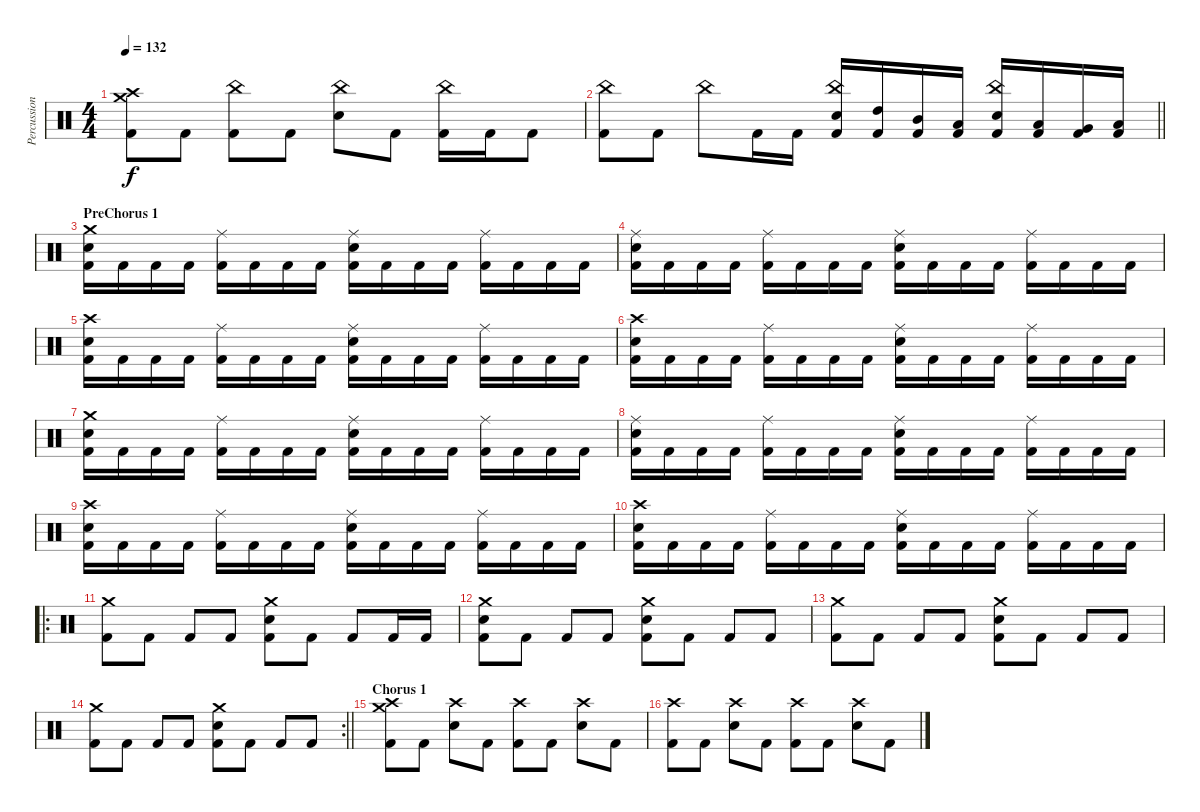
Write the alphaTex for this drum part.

\track ("Percussion" "Percussion") {instrument percussion}
\staff {score}
\articulation defaults
\ts (4 4)
\tempo 132
\clef neutral
\ks c
("Crash medium (hit)" "Crash high (hit)" "Kick (hit) 2").8{dy f} "Kick (hit) 2".8 ("China (hit)" "Kick (hit) 2").8 "Kick (hit) 2".8 ("China (hit)" "Electric Snare (hit)").8 "Kick (hit) 2".8 ("China (hit)" "Kick (hit) 2").16 "Kick (hit) 2".16 "Kick (hit) 2".8 |
\barLineRight lightlight
("China (hit)" "Kick (hit) 2").8 "Kick (hit) 2".8 "China (hit)".8 "Kick (hit) 2".16 "Kick (hit) 2".16 ("China (hit)" "Electric Snare (hit)" "Kick (hit) 2").16 ("High Tom (hit)" "Kick (hit) 2").16 ("Mid Tom (hit)" "Kick (hit) 2").16 ("Low Tom (hit)" "Kick (hit) 2").16 ("China (hit)" "Electric Snare (hit)" "Kick (hit) 2").16 ("Low Tom (hit)" "Kick (hit) 2").16 ("Very Low Tom (hit)" "Kick (hit) 2").16 ("Low Floor Tom (hit)" "Kick (hit) 2").16 |
\section ("" "PreChorus 1")
("Crash medium (hit)" "Electric Snare (hit)" "Kick (hit) 2").16 "Kick (hit) 2".16 "Kick (hit) 2".16 "Kick (hit) 2".16 ("Ride (middle)" "Kick (hit) 2").16 "Kick (hit) 2".16 "Kick (hit) 2".16 "Kick (hit) 2".16 ("Ride (middle)" "Electric Snare (hit)" "Kick (hit) 2").16 "Kick (hit) 2".16 "Kick (hit) 2".16 "Kick (hit) 2".16 ("Ride (middle)" "Kick (hit) 2").16 "Kick (hit) 2".16 "Kick (hit) 2".16 "Kick (hit) 2".16 |
("Ride (middle)" "Electric Snare (hit)" "Kick (hit) 2").16 "Kick (hit) 2".16 "Kick (hit) 2".16 "Kick (hit) 2".16 ("Ride (middle)" "Kick (hit) 2").16 "Kick (hit) 2".16 "Kick (hit) 2".16 "Kick (hit) 2".16 ("Ride (middle)" "Electric Snare (hit)" "Kick (hit) 2").16 "Kick (hit) 2".16 "Kick (hit) 2".16 "Kick (hit) 2".16 ("Ride (middle)" "Kick (hit) 2").16 "Kick (hit) 2".16 "Kick (hit) 2".16 "Kick (hit) 2".16 |
("Crash high (hit)" "Electric Snare (hit)" "Kick (hit) 2").16 "Kick (hit) 2".16 "Kick (hit) 2".16 "Kick (hit) 2".16 ("Ride (middle)" "Kick (hit) 2").16 "Kick (hit) 2".16 "Kick (hit) 2".16 "Kick (hit) 2".16 ("Ride (middle)" "Electric Snare (hit)" "Kick (hit) 2").16 "Kick (hit) 2".16 "Kick (hit) 2".16 "Kick (hit) 2".16 ("Ride (middle)" "Kick (hit) 2").16 "Kick (hit) 2".16 "Kick (hit) 2".16 "Kick (hit) 2".16 |
("Crash high (hit)" "Electric Snare (hit)" "Kick (hit) 2").16 "Kick (hit) 2".16 "Kick (hit) 2".16 "Kick (hit) 2".16 ("Ride (middle)" "Kick (hit) 2").16 "Kick (hit) 2".16 "Kick (hit) 2".16 "Kick (hit) 2".16 ("Ride (middle)" "Electric Snare (hit)" "Kick (hit) 2").16 "Kick (hit) 2".16 "Kick (hit) 2".16 "Kick (hit) 2".16 ("Ride (middle)" "Kick (hit) 2").16 "Kick (hit) 2".16 "Kick (hit) 2".16 "Kick (hit) 2".16 |
("Crash medium (hit)" "Electric Snare (hit)" "Kick (hit) 2").16 "Kick (hit) 2".16 "Kick (hit) 2".16 "Kick (hit) 2".16 ("Ride (middle)" "Kick (hit) 2").16 "Kick (hit) 2".16 "Kick (hit) 2".16 "Kick (hit) 2".16 ("Ride (middle)" "Electric Snare (hit)" "Kick (hit) 2").16 "Kick (hit) 2".16 "Kick (hit) 2".16 "Kick (hit) 2".16 ("Ride (middle)" "Kick (hit) 2").16 "Kick (hit) 2".16 "Kick (hit) 2".16 "Kick (hit) 2".16 |
("Ride (middle)" "Electric Snare (hit)" "Kick (hit) 2").16 "Kick (hit) 2".16 "Kick (hit) 2".16 "Kick (hit) 2".16 ("Ride (middle)" "Kick (hit) 2").16 "Kick (hit) 2".16 "Kick (hit) 2".16 "Kick (hit) 2".16 ("Ride (middle)" "Electric Snare (hit)" "Kick (hit) 2").16 "Kick (hit) 2".16 "Kick (hit) 2".16 "Kick (hit) 2".16 ("Ride (middle)" "Kick (hit) 2").16 "Kick (hit) 2".16 "Kick (hit) 2".16 "Kick (hit) 2".16 |
("Crash high (hit)" "Electric Snare (hit)" "Kick (hit) 2").16 "Kick (hit) 2".16 "Kick (hit) 2".16 "Kick (hit) 2".16 ("Ride (middle)" "Kick (hit) 2").16 "Kick (hit) 2".16 "Kick (hit) 2".16 "Kick (hit) 2".16 ("Ride (middle)" "Electric Snare (hit)" "Kick (hit) 2").16 "Kick (hit) 2".16 "Kick (hit) 2".16 "Kick (hit) 2".16 ("Ride (middle)" "Kick (hit) 2").16 "Kick (hit) 2".16 "Kick (hit) 2".16 "Kick (hit) 2".16 |
("Crash high (hit)" "Electric Snare (hit)" "Kick (hit) 2").16 "Kick (hit) 2".16 "Kick (hit) 2".16 "Kick (hit) 2".16 ("Ride (middle)" "Kick (hit) 2").16 "Kick (hit) 2".16 "Kick (hit) 2".16 "Kick (hit) 2".16 ("Ride (middle)" "Electric Snare (hit)" "Kick (hit) 2").16 "Kick (hit) 2".16 "Kick (hit) 2".16 "Kick (hit) 2".16 ("Ride (middle)" "Kick (hit) 2").16 "Kick (hit) 2".16 "Kick (hit) 2".16 "Kick (hit) 2".16 |
\ro
("Crash medium (hit)" "Kick (hit) 2").8 "Kick (hit) 2".8 "Kick (hit) 2".8 "Kick (hit) 2".8 ("Crash medium (hit)" "Electric Snare (hit)" "Kick (hit) 2").8 "Kick (hit) 2".8 "Kick (hit) 2".8 "Kick (hit) 2".16 "Kick (hit) 2".16 |
("Crash medium (hit)" "Electric Snare (hit)" "Kick (hit) 2").8 "Kick (hit) 2".8 "Kick (hit) 2".8 "Kick (hit) 2".8 ("Crash medium (hit)" "Electric Snare (hit)" "Kick (hit) 2").8 "Kick (hit) 2".8 "Kick (hit) 2".8 "Kick (hit) 2".8 |
("Crash medium (hit)" "Kick (hit) 2").8 "Kick (hit) 2".8 "Kick (hit) 2".8 "Kick (hit) 2".8 ("Crash medium (hit)" "Electric Snare (hit)" "Kick (hit) 2").8 "Kick (hit) 2".8 "Kick (hit) 2".8 "Kick (hit) 2".8 |
\rc 2
\barLineRight lightlight
("Crash medium (hit)" "Kick (hit) 2").8 "Kick (hit) 2".8 "Kick (hit) 2".8 "Kick (hit) 2".8 ("Crash medium (hit)" "Electric Snare (hit)" "Kick (hit) 2").8 "Kick (hit) 2".8 "Kick (hit) 2".8 "Kick (hit) 2".8 |
\section ("" "Chorus 1")
("Crash medium (hit)" "Crash high (hit)" "Kick (hit) 2").8 "Kick (hit) 2".8 ("Crash high (hit)" "Electric Snare (hit)").8 "Kick (hit) 2".8 ("Crash high (hit)" "Kick (hit) 2").8 "Kick (hit) 2".8 ("Crash high (hit)" "Electric Snare (hit)").8 "Kick (hit) 2".8 |
("Crash high (hit)" "Kick (hit) 2").8 "Kick (hit) 2".8 ("Crash high (hit)" "Electric Snare (hit)").8 "Kick (hit) 2".8 ("Crash high (hit)" "Kick (hit) 2").8 "Kick (hit) 2".8 ("Crash high (hit)" "Electric Snare (hit)").8 "Kick (hit) 2".8
